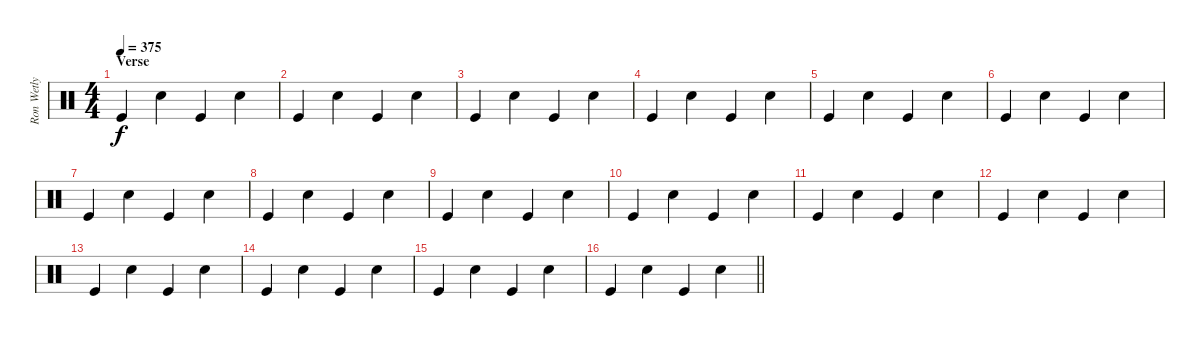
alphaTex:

\track ("Ron Wetly (Drums)" "Ron Wetly ") {instrument percussion}
\staff {score}
\articulation defaults
\ts (4 4)
\section ("" "Verse")
\tempo 375
\clef neutral
\ks c "Kick (hit)".4{dy f} "Snare (hit) 2".4 "Kick (hit)".4 "Snare (hit) 2".4
|
"Kick (hit)".4 "Snare (hit) 2".4 "Kick (hit)".4 "Snare (hit) 2".4 |
"Kick (hit)".4 "Snare (hit) 2".4 "Kick (hit)".4 "Snare (hit) 2".4 |
"Kick (hit)".4 "Snare (hit) 2".4 "Kick (hit)".4 "Snare (hit) 2".4 |
"Kick (hit)".4 "Snare (hit) 2".4 "Kick (hit)".4 "Snare (hit) 2".4 |
"Kick (hit)".4 "Snare (hit) 2".4 "Kick (hit)".4 "Snare (hit) 2".4 |
"Kick (hit)".4 "Snare (hit) 2".4 "Kick (hit)".4 "Snare (hit) 2".4 |
"Kick (hit)".4 "Snare (hit) 2".4 "Kick (hit)".4 "Snare (hit) 2".4 |
"Kick (hit)".4 "Snare (hit) 2".4 "Kick (hit)".4 "Snare (hit) 2".4 |
"Kick (hit)".4 "Snare (hit) 2".4 "Kick (hit)".4 "Snare (hit) 2".4 |
"Kick (hit)".4 "Snare (hit) 2".4 "Kick (hit)".4 "Snare (hit) 2".4 |
"Kick (hit)".4 "Snare (hit) 2".4 "Kick (hit)".4 "Snare (hit) 2".4 |
"Kick (hit)".4 "Snare (hit) 2".4 "Kick (hit)".4 "Snare (hit) 2".4 |
"Kick (hit)".4 "Snare (hit) 2".4 "Kick (hit)".4 "Snare (hit) 2".4 |
"Kick (hit)".4 "Snare (hit) 2".4 "Kick (hit)".4 "Snare (hit) 2".4 |
\barLineRight lightlight "Kick (hit)".4 "Snare (hit) 2".4 "Kick (hit)".4 "Snare (hit) 2".4
